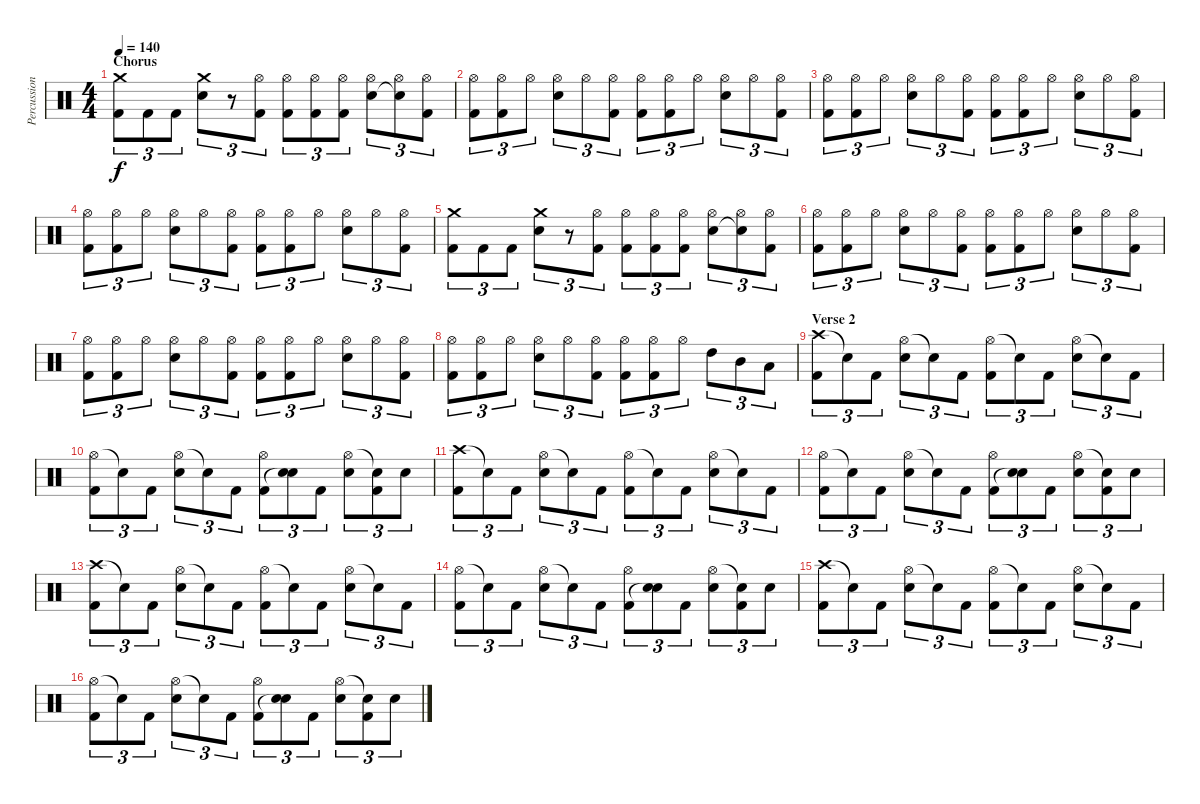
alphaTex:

\track ("Percussion" "Percussion") {instrument percussion}
\staff {score}
\articulation defaults
\ts (4 4)
\section ("" "Chorus")
\tempo 140
\clef neutral
\ks c
("Crash medium (hit)" "Kick (hit) 2").8{tu (3 2) dy f} "Kick (hit) 2".8{tu (3 2)} "Kick (hit) 2".8{tu (3 2)} ("Crash medium (hit)" "Electric Snare (hit)").8{tu (3 2)} r.8{tu (3 2)} ("Hi-Hat (open)" "Kick (hit) 2").8{tu (3 2)} ("Hi-Hat (open)" "Kick (hit) 2").8{tu (3 2)} ("Hi-Hat (open)" "Kick (hit) 2").8{tu (3 2)} ("Hi-Hat (open)" "Kick (hit) 2").8{tu (3 2)} ("Hi-Hat (open)" "Electric Snare (hit)").8{tu (3 2)} ("Hi-Hat (open)" "Snare (hit)"{t}).8{tu (3 2)} ("Hi-Hat (open)" "Kick (hit) 2").8{tu (3 2)} |
("Hi-Hat (open)" "Kick (hit) 2").8{tu (3 2)} ("Hi-Hat (open)" "Kick (hit) 2").8{tu (3 2)} "Hi-Hat (open)".8{tu (3 2)} ("Hi-Hat (open)" "Electric Snare (hit)").8{tu (3 2)} "Hi-Hat (open)".8{tu (3 2)} ("Hi-Hat (open)" "Kick (hit) 2").8{tu (3 2)} ("Hi-Hat (open)" "Kick (hit) 2").8{tu (3 2)} ("Hi-Hat (open)" "Kick (hit) 2").8{tu (3 2)} "Hi-Hat (open)".8{tu (3 2)} ("Hi-Hat (open)" "Electric Snare (hit)").8{tu (3 2)} "Hi-Hat (open)".8{tu (3 2)} ("Hi-Hat (open)" "Kick (hit) 2").8{tu (3 2)} |
("Hi-Hat (open)" "Kick (hit) 2").8{tu (3 2)} ("Hi-Hat (open)" "Kick (hit) 2").8{tu (3 2)} "Hi-Hat (open)".8{tu (3 2)} ("Hi-Hat (open)" "Electric Snare (hit)").8{tu (3 2)} "Hi-Hat (open)".8{tu (3 2)} ("Hi-Hat (open)" "Kick (hit) 2").8{tu (3 2)} ("Hi-Hat (open)" "Kick (hit) 2").8{tu (3 2)} ("Hi-Hat (open)" "Kick (hit) 2").8{tu (3 2)} "Hi-Hat (open)".8{tu (3 2)} ("Hi-Hat (open)" "Electric Snare (hit)").8{tu (3 2)} "Hi-Hat (open)".8{tu (3 2)} ("Hi-Hat (open)" "Kick (hit) 2").8{tu (3 2)} |
("Hi-Hat (open)" "Kick (hit) 2").8{tu (3 2)} ("Hi-Hat (open)" "Kick (hit) 2").8{tu (3 2)} "Hi-Hat (open)".8{tu (3 2)} ("Hi-Hat (open)" "Electric Snare (hit)").8{tu (3 2)} "Hi-Hat (open)".8{tu (3 2)} ("Hi-Hat (open)" "Kick (hit) 2").8{tu (3 2)} ("Hi-Hat (open)" "Kick (hit) 2").8{tu (3 2)} ("Hi-Hat (open)" "Kick (hit) 2").8{tu (3 2)} "Hi-Hat (open)".8{tu (3 2)} ("Hi-Hat (open)" "Electric Snare (hit)").8{tu (3 2)} "Hi-Hat (open)".8{tu (3 2)} ("Hi-Hat (open)" "Kick (hit) 2").8{tu (3 2)} |
("Crash medium (hit)" "Kick (hit) 2").8{tu (3 2)} "Kick (hit) 2".8{tu (3 2)} "Kick (hit) 2".8{tu (3 2)} ("Crash medium (hit)" "Electric Snare (hit)").8{tu (3 2)} r.8{tu (3 2)} ("Hi-Hat (open)" "Kick (hit) 2").8{tu (3 2)} ("Hi-Hat (open)" "Kick (hit) 2").8{tu (3 2)} ("Hi-Hat (open)" "Kick (hit) 2").8{tu (3 2)} ("Hi-Hat (open)" "Kick (hit) 2").8{tu (3 2)} ("Hi-Hat (open)" "Electric Snare (hit)").8{tu (3 2)} ("Hi-Hat (open)" "Snare (hit)"{t}).8{tu (3 2)} ("Hi-Hat (open)" "Kick (hit) 2").8{tu (3 2)} |
("Hi-Hat (open)" "Kick (hit) 2").8{tu (3 2)} ("Hi-Hat (open)" "Kick (hit) 2").8{tu (3 2)} "Hi-Hat (open)".8{tu (3 2)} ("Hi-Hat (open)" "Electric Snare (hit)").8{tu (3 2)} "Hi-Hat (open)".8{tu (3 2)} ("Hi-Hat (open)" "Kick (hit) 2").8{tu (3 2)} ("Hi-Hat (open)" "Kick (hit) 2").8{tu (3 2)} ("Hi-Hat (open)" "Kick (hit) 2").8{tu (3 2)} "Hi-Hat (open)".8{tu (3 2)} ("Hi-Hat (open)" "Electric Snare (hit)").8{tu (3 2)} "Hi-Hat (open)".8{tu (3 2)} ("Hi-Hat (open)" "Kick (hit) 2").8{tu (3 2)} |
("Hi-Hat (open)" "Kick (hit) 2").8{tu (3 2)} ("Hi-Hat (open)" "Kick (hit) 2").8{tu (3 2)} "Hi-Hat (open)".8{tu (3 2)} ("Hi-Hat (open)" "Electric Snare (hit)").8{tu (3 2)} "Hi-Hat (open)".8{tu (3 2)} ("Hi-Hat (open)" "Kick (hit) 2").8{tu (3 2)} ("Hi-Hat (open)" "Kick (hit) 2").8{tu (3 2)} ("Hi-Hat (open)" "Kick (hit) 2").8{tu (3 2)} "Hi-Hat (open)".8{tu (3 2)} ("Hi-Hat (open)" "Electric Snare (hit)").8{tu (3 2)} "Hi-Hat (open)".8{tu (3 2)} ("Hi-Hat (open)" "Kick (hit) 2").8{tu (3 2)} |
("Hi-Hat (open)" "Kick (hit) 2").8{tu (3 2)} ("Hi-Hat (open)" "Kick (hit) 2").8{tu (3 2)} "Hi-Hat (open)".8{tu (3 2)} ("Hi-Hat (open)" "Electric Snare (hit)").8{tu (3 2)} "Hi-Hat (open)".8{tu (3 2)} ("Hi-Hat (open)" "Kick (hit) 2").8{tu (3 2)} ("Hi-Hat (open)" "Kick (hit) 2").8{tu (3 2)} ("Hi-Hat (open)" "Kick (hit) 2").8{tu (3 2)} "Hi-Hat (open)".8{tu (3 2)} "High Tom (hit)".8{tu (3 2)} "Mid Tom (hit)".8{tu (3 2)} "Low Tom (hit)".8{tu (3 2)} |
\section ("" "Verse 2")
("Crash high (hit)" "Kick (hit) 2").8{tu (3 2)} "Snare (hit)"{t}.8{tu (3 2)} "Kick (hit) 2".8{tu (3 2)} ("Hi-Hat (open)" "Electric Snare (hit)").8{tu (3 2)} "Snare (hit)"{t}.8{tu (3 2)} "Kick (hit) 2".8{tu (3 2)} ("Hi-Hat (open)" "Kick (hit) 2").8{tu (3 2)} "Snare (hit)"{t}.8{tu (3 2)} "Kick (hit) 2".8{tu (3 2)} ("Hi-Hat (open)" "Electric Snare (hit)").8{tu (3 2)} "Snare (hit)"{t}.8{tu (3 2)} "Kick (hit) 2".8{tu (3 2)} |
("Hi-Hat (open)" "Kick (hit) 2").8{tu (3 2)} "Snare (hit)"{t}.8{tu (3 2)} "Kick (hit) 2".8{tu (3 2)} ("Hi-Hat (open)" "Electric Snare (hit)").8{tu (3 2)} "Snare (hit)"{t}.8{tu (3 2)} "Kick (hit) 2".8{tu (3 2)} ("Hi-Hat (open)" "Kick (hit) 2").8{tu (3 2)} ("Electric Snare (hit)" "Snare (hit)"{t}).8{tu (3 2)} "Kick (hit) 2".8{tu (3 2)} ("Hi-Hat (open)" "Electric Snare (hit)").8{tu (3 2)} ("Snare (hit)"{t} "Kick (hit) 2").8{tu (3 2)} "Electric Snare (hit)".8{tu (3 2)} |
("Crash high (hit)" "Kick (hit) 2").8{tu (3 2)} "Snare (hit)"{t}.8{tu (3 2)} "Kick (hit) 2".8{tu (3 2)} ("Hi-Hat (open)" "Electric Snare (hit)").8{tu (3 2)} "Snare (hit)"{t}.8{tu (3 2)} "Kick (hit) 2".8{tu (3 2)} ("Hi-Hat (open)" "Kick (hit) 2").8{tu (3 2)} "Snare (hit)"{t}.8{tu (3 2)} "Kick (hit) 2".8{tu (3 2)} ("Hi-Hat (open)" "Electric Snare (hit)").8{tu (3 2)} "Snare (hit)"{t}.8{tu (3 2)} "Kick (hit) 2".8{tu (3 2)} |
("Hi-Hat (open)" "Kick (hit) 2").8{tu (3 2)} "Snare (hit)"{t}.8{tu (3 2)} "Kick (hit) 2".8{tu (3 2)} ("Hi-Hat (open)" "Electric Snare (hit)").8{tu (3 2)} "Snare (hit)"{t}.8{tu (3 2)} "Kick (hit) 2".8{tu (3 2)} ("Hi-Hat (open)" "Kick (hit) 2").8{tu (3 2)} ("Electric Snare (hit)" "Snare (hit)"{t}).8{tu (3 2)} "Kick (hit) 2".8{tu (3 2)} ("Hi-Hat (open)" "Electric Snare (hit)").8{tu (3 2)} ("Snare (hit)"{t} "Kick (hit) 2").8{tu (3 2)} "Electric Snare (hit)".8{tu (3 2)} |
("Crash high (hit)" "Kick (hit) 2").8{tu (3 2)} "Snare (hit)"{t}.8{tu (3 2)} "Kick (hit) 2".8{tu (3 2)} ("Hi-Hat (open)" "Electric Snare (hit)").8{tu (3 2)} "Snare (hit)"{t}.8{tu (3 2)} "Kick (hit) 2".8{tu (3 2)} ("Hi-Hat (open)" "Kick (hit) 2").8{tu (3 2)} "Snare (hit)"{t}.8{tu (3 2)} "Kick (hit) 2".8{tu (3 2)} ("Hi-Hat (open)" "Electric Snare (hit)").8{tu (3 2)} "Snare (hit)"{t}.8{tu (3 2)} "Kick (hit) 2".8{tu (3 2)} |
("Hi-Hat (open)" "Kick (hit) 2").8{tu (3 2)} "Snare (hit)"{t}.8{tu (3 2)} "Kick (hit) 2".8{tu (3 2)} ("Hi-Hat (open)" "Electric Snare (hit)").8{tu (3 2)} "Snare (hit)"{t}.8{tu (3 2)} "Kick (hit) 2".8{tu (3 2)} ("Hi-Hat (open)" "Kick (hit) 2").8{tu (3 2)} ("Electric Snare (hit)" "Snare (hit)"{t}).8{tu (3 2)} "Kick (hit) 2".8{tu (3 2)} ("Hi-Hat (open)" "Electric Snare (hit)").8{tu (3 2)} ("Snare (hit)"{t} "Kick (hit) 2").8{tu (3 2)} "Electric Snare (hit)".8{tu (3 2)} |
("Crash high (hit)" "Kick (hit) 2").8{tu (3 2)} "Snare (hit)"{t}.8{tu (3 2)} "Kick (hit) 2".8{tu (3 2)} ("Hi-Hat (open)" "Electric Snare (hit)").8{tu (3 2)} "Snare (hit)"{t}.8{tu (3 2)} "Kick (hit) 2".8{tu (3 2)} ("Hi-Hat (open)" "Kick (hit) 2").8{tu (3 2)} "Snare (hit)"{t}.8{tu (3 2)} "Kick (hit) 2".8{tu (3 2)} ("Hi-Hat (open)" "Electric Snare (hit)").8{tu (3 2)} "Snare (hit)"{t}.8{tu (3 2)} "Kick (hit) 2".8{tu (3 2)} |
("Hi-Hat (open)" "Kick (hit) 2").8{tu (3 2)} "Snare (hit)"{t}.8{tu (3 2)} "Kick (hit) 2".8{tu (3 2)} ("Hi-Hat (open)" "Electric Snare (hit)").8{tu (3 2)} "Snare (hit)"{t}.8{tu (3 2)} "Kick (hit) 2".8{tu (3 2)} ("Hi-Hat (open)" "Kick (hit) 2").8{tu (3 2)} ("Electric Snare (hit)" "Snare (hit)"{t}).8{tu (3 2)} "Kick (hit) 2".8{tu (3 2)} ("Hi-Hat (open)" "Electric Snare (hit)").8{tu (3 2)} ("Snare (hit)"{t} "Kick (hit) 2").8{tu (3 2)} "Electric Snare (hit)".8{tu (3 2)}
